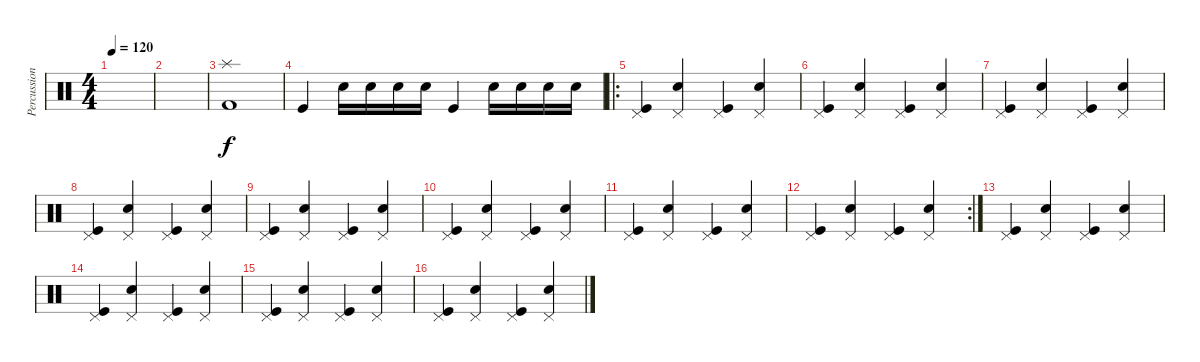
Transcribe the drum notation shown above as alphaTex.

\track ("Percussion" "Percussion") {instrument percussion}
\staff {score}
\articulation defaults
\ts (4 4)
\tempo 120
\clef neutral
\ks c
|
|
("Splash (hit)" "Kick (hit) 2").1 |
"Kick (hit)".4 "Snare (hit) 2".16 "Snare (hit) 2".16 "Snare (hit) 2".16 "Snare (hit) 2".16 "Kick (hit)".4 "Snare (hit) 2".16 "Snare (hit) 2".16 "Snare (hit) 2".16 "Snare (hit) 2".16 |
\ro
("Kick (hit)" "Pedal Hi-Hat (hit)").4 ("Snare (hit) 2" "Pedal Hi-Hat (hit)").4 ("Kick (hit)" "Pedal Hi-Hat (hit)").4 ("Snare (hit) 2" "Pedal Hi-Hat (hit)").4 |
("Kick (hit)" "Pedal Hi-Hat (hit)").4 ("Snare (hit) 2" "Pedal Hi-Hat (hit)").4 ("Kick (hit)" "Pedal Hi-Hat (hit)").4 ("Snare (hit) 2" "Pedal Hi-Hat (hit)").4 |
("Kick (hit)" "Pedal Hi-Hat (hit)").4 ("Snare (hit) 2" "Pedal Hi-Hat (hit)").4 ("Kick (hit)" "Pedal Hi-Hat (hit)").4 ("Snare (hit) 2" "Pedal Hi-Hat (hit)").4 |
("Kick (hit)" "Pedal Hi-Hat (hit)").4 ("Snare (hit) 2" "Pedal Hi-Hat (hit)").4 ("Kick (hit)" "Pedal Hi-Hat (hit)").4 ("Snare (hit) 2" "Pedal Hi-Hat (hit)").4 |
("Kick (hit)" "Pedal Hi-Hat (hit)").4 ("Snare (hit) 2" "Pedal Hi-Hat (hit)").4 ("Kick (hit)" "Pedal Hi-Hat (hit)").4 ("Snare (hit) 2" "Pedal Hi-Hat (hit)").4 |
("Kick (hit)" "Pedal Hi-Hat (hit)").4 ("Snare (hit) 2" "Pedal Hi-Hat (hit)").4 ("Kick (hit)" "Pedal Hi-Hat (hit)").4 ("Snare (hit) 2" "Pedal Hi-Hat (hit)").4 |
("Kick (hit)" "Pedal Hi-Hat (hit)").4 ("Snare (hit) 2" "Pedal Hi-Hat (hit)").4 ("Kick (hit)" "Pedal Hi-Hat (hit)").4 ("Snare (hit) 2" "Pedal Hi-Hat (hit)").4 |
\rc 2
("Kick (hit)" "Pedal Hi-Hat (hit)").4 ("Snare (hit) 2" "Pedal Hi-Hat (hit)").4 ("Kick (hit)" "Pedal Hi-Hat (hit)").4 ("Snare (hit) 2" "Pedal Hi-Hat (hit)").4 |
("Kick (hit)" "Pedal Hi-Hat (hit)").4 ("Snare (hit) 2" "Pedal Hi-Hat (hit)").4 ("Kick (hit)" "Pedal Hi-Hat (hit)").4 ("Snare (hit) 2" "Pedal Hi-Hat (hit)").4 |
("Kick (hit)" "Pedal Hi-Hat (hit)").4 ("Snare (hit) 2" "Pedal Hi-Hat (hit)").4 ("Kick (hit)" "Pedal Hi-Hat (hit)").4 ("Snare (hit) 2" "Pedal Hi-Hat (hit)").4 |
("Kick (hit)" "Pedal Hi-Hat (hit)").4 ("Snare (hit) 2" "Pedal Hi-Hat (hit)").4 ("Kick (hit)" "Pedal Hi-Hat (hit)").4 ("Snare (hit) 2" "Pedal Hi-Hat (hit)").4 |
("Kick (hit)" "Pedal Hi-Hat (hit)").4 ("Snare (hit) 2" "Pedal Hi-Hat (hit)").4 ("Kick (hit)" "Pedal Hi-Hat (hit)").4 ("Snare (hit) 2" "Pedal Hi-Hat (hit)").4
